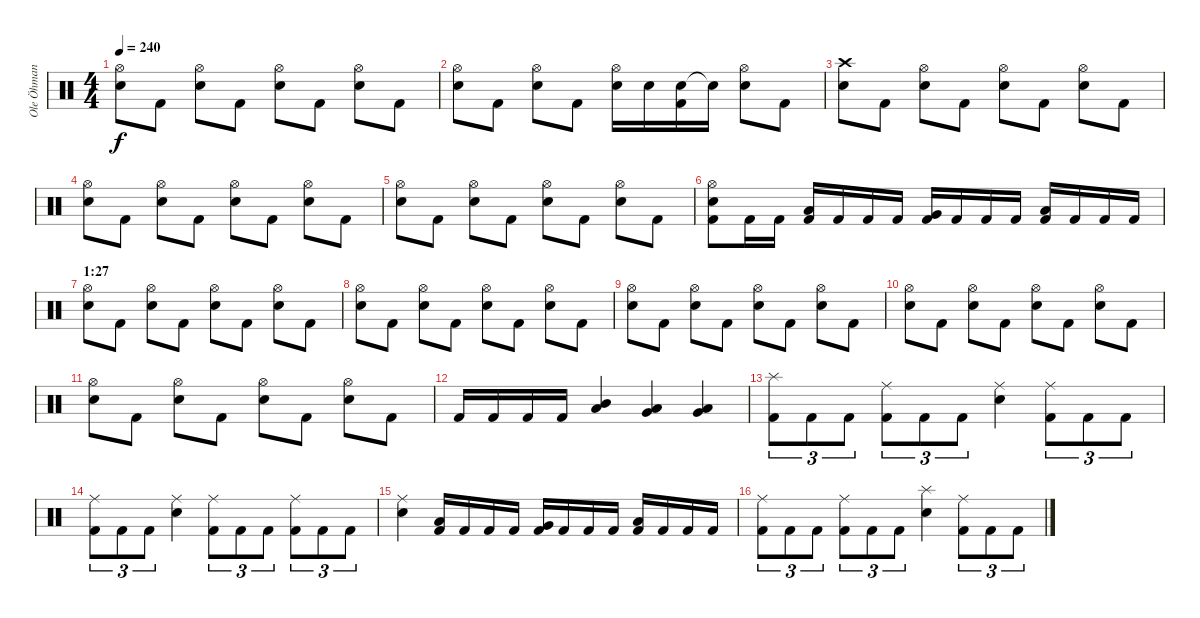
\track ("Ole Öhman" "Ole Öhman") {instrument percussion}
\staff {score}
\articulation defaults
\ts (4 4)
\tempo 240
\clef neutral
\ks c
("Hi-Hat (open)" "Electric Snare (hit)").8{dy f} "Kick (hit) 2".8 ("Hi-Hat (open)" "Electric Snare (hit)").8 "Kick (hit) 2".8 ("Hi-Hat (open)" "Electric Snare (hit)").8 "Kick (hit) 2".8 ("Hi-Hat (open)" "Electric Snare (hit)").8 "Kick (hit) 2".8 |
("Hi-Hat (open)" "Electric Snare (hit)").8 "Kick (hit) 2".8 ("Hi-Hat (open)" "Electric Snare (hit)").8 "Kick (hit) 2".8 ("Hi-Hat (open)" "Electric Snare (hit)").16 "Electric Snare (hit)".16 ("Electric Snare (hit)" "Kick (hit) 2").16 "Electric Snare (hit)"{t}.16 ("Hi-Hat (open)" "Electric Snare (hit)").8 "Kick (hit) 2".8 |
("Crash high (hit)" "Electric Snare (hit)").8 "Kick (hit) 2".8 ("Hi-Hat (open)" "Electric Snare (hit)").8 "Kick (hit) 2".8 ("Hi-Hat (open)" "Electric Snare (hit)").8 "Kick (hit) 2".8 ("Hi-Hat (open)" "Electric Snare (hit)").8 "Kick (hit) 2".8 |
("Hi-Hat (open)" "Electric Snare (hit)").8 "Kick (hit) 2".8 ("Hi-Hat (open)" "Electric Snare (hit)").8 "Kick (hit) 2".8 ("Hi-Hat (open)" "Electric Snare (hit)").8 "Kick (hit) 2".8 ("Hi-Hat (open)" "Electric Snare (hit)").8 "Kick (hit) 2".8 |
("Hi-Hat (open)" "Electric Snare (hit)").8 "Kick (hit) 2".8 ("Hi-Hat (open)" "Electric Snare (hit)").8 "Kick (hit) 2".8 ("Hi-Hat (open)" "Electric Snare (hit)").8 "Kick (hit) 2".8 ("Hi-Hat (open)" "Electric Snare (hit)").8 "Kick (hit) 2".8 |
("Hi-Hat (open)" "Electric Snare (hit)" "Kick (hit) 2").8 "Kick (hit) 2".16 "Kick (hit) 2".16 ("Low Tom (hit)" "Kick (hit) 2").16 "Kick (hit) 2".16 "Kick (hit) 2".16 "Kick (hit) 2".16 ("Very Low Tom (hit)" "Kick (hit) 2").16 "Kick (hit) 2".16 "Kick (hit) 2".16 "Kick (hit) 2".16 ("Low Floor Tom (hit)" "Kick (hit) 2").16 "Kick (hit) 2".16 "Kick (hit) 2".16 "Kick (hit) 2".16 |
\section ("" "1:27")
("Hi-Hat (open)" "Electric Snare (hit)").8 "Kick (hit) 2".8 ("Hi-Hat (open)" "Electric Snare (hit)").8 "Kick (hit) 2".8 ("Hi-Hat (open)" "Electric Snare (hit)").8 "Kick (hit) 2".8 ("Hi-Hat (open)" "Electric Snare (hit)").8 "Kick (hit) 2".8 |
("Hi-Hat (open)" "Electric Snare (hit)").8 "Kick (hit) 2".8 ("Hi-Hat (open)" "Electric Snare (hit)").8 "Kick (hit) 2".8 ("Hi-Hat (open)" "Electric Snare (hit)").8 "Kick (hit) 2".8 ("Hi-Hat (open)" "Electric Snare (hit)").8 "Kick (hit) 2".8 |
("Hi-Hat (open)" "Electric Snare (hit)").8 "Kick (hit) 2".8 ("Hi-Hat (open)" "Electric Snare (hit)").8 "Kick (hit) 2".8 ("Hi-Hat (open)" "Electric Snare (hit)").8 "Kick (hit) 2".8 ("Hi-Hat (open)" "Electric Snare (hit)").8 "Kick (hit) 2".8 |
("Hi-Hat (open)" "Electric Snare (hit)").8 "Kick (hit) 2".8 ("Hi-Hat (open)" "Electric Snare (hit)").8 "Kick (hit) 2".8 ("Hi-Hat (open)" "Electric Snare (hit)").8 "Kick (hit) 2".8 ("Hi-Hat (open)" "Electric Snare (hit)").8 "Kick (hit) 2".8 |
("Hi-Hat (open)" "Electric Snare (hit)").8 "Kick (hit) 2".8 ("Hi-Hat (open)" "Electric Snare (hit)").8 "Kick (hit) 2".8 ("Hi-Hat (open)" "Electric Snare (hit)").8 "Kick (hit) 2".8 ("Hi-Hat (open)" "Electric Snare (hit)").8 "Kick (hit) 2".8 |
"Kick (hit) 2".16 "Kick (hit) 2".16 "Kick (hit) 2".16 "Kick (hit) 2".16 ("Mid Tom (hit)" "Low Tom (hit)").4 ("Low Tom (hit)" "Very Low Tom (hit)").4 ("Very Low Tom (hit)" "Low Floor Tom (hit)").4 |
("Splash (hit)" "Kick (hit) 2").8{tu (3 2)} "Kick (hit) 2".8{tu (3 2)} "Kick (hit) 2".8{tu (3 2)} ("Ride (middle)" "Kick (hit) 2").8{tu (3 2)} "Kick (hit) 2".8{tu (3 2)} "Kick (hit) 2".8{tu (3 2)} ("Ride (middle)" "Electric Snare (hit)").4 ("Ride (middle)" "Kick (hit) 2").8{tu (3 2)} "Kick (hit) 2".8{tu (3 2)} "Kick (hit) 2".8{tu (3 2)} |
("Ride (middle)" "Kick (hit) 2").8{tu (3 2)} "Kick (hit) 2".8{tu (3 2)} "Kick (hit) 2".8{tu (3 2)} ("Ride (middle)" "Electric Snare (hit)").4 ("Ride (middle)" "Kick (hit) 2").8{tu (3 2)} "Kick (hit) 2".8{tu (3 2)} "Kick (hit) 2".8{tu (3 2)} ("Ride (middle)" "Kick (hit) 2").8{tu (3 2)} "Kick (hit) 2".8{tu (3 2)} "Kick (hit) 2".8{tu (3 2)} |
("Ride (middle)" "Electric Snare (hit)").4 ("Low Tom (hit)" "Kick (hit) 2").16 "Kick (hit) 2".16 "Kick (hit) 2".16 "Kick (hit) 2".16 ("Very Low Tom (hit)" "Kick (hit) 2").16 "Kick (hit) 2".16 "Kick (hit) 2".16 "Kick (hit) 2".16 ("Low Floor Tom (hit)" "Kick (hit) 2").16 "Kick (hit) 2".16 "Kick (hit) 2".16 "Kick (hit) 2".16 |
("Ride (middle)" "Kick (hit) 2").8{tu (3 2)} "Kick (hit) 2".8{tu (3 2)} "Kick (hit) 2".8{tu (3 2)} ("Ride (middle)" "Kick (hit) 2").8{tu (3 2)} "Kick (hit) 2".8{tu (3 2)} "Kick (hit) 2".8{tu (3 2)} ("Splash (hit)" "Electric Snare (hit)").4 ("Ride (middle)" "Kick (hit) 2").8{tu (3 2)} "Kick (hit) 2".8{tu (3 2)} "Kick (hit) 2".8{tu (3 2)}
